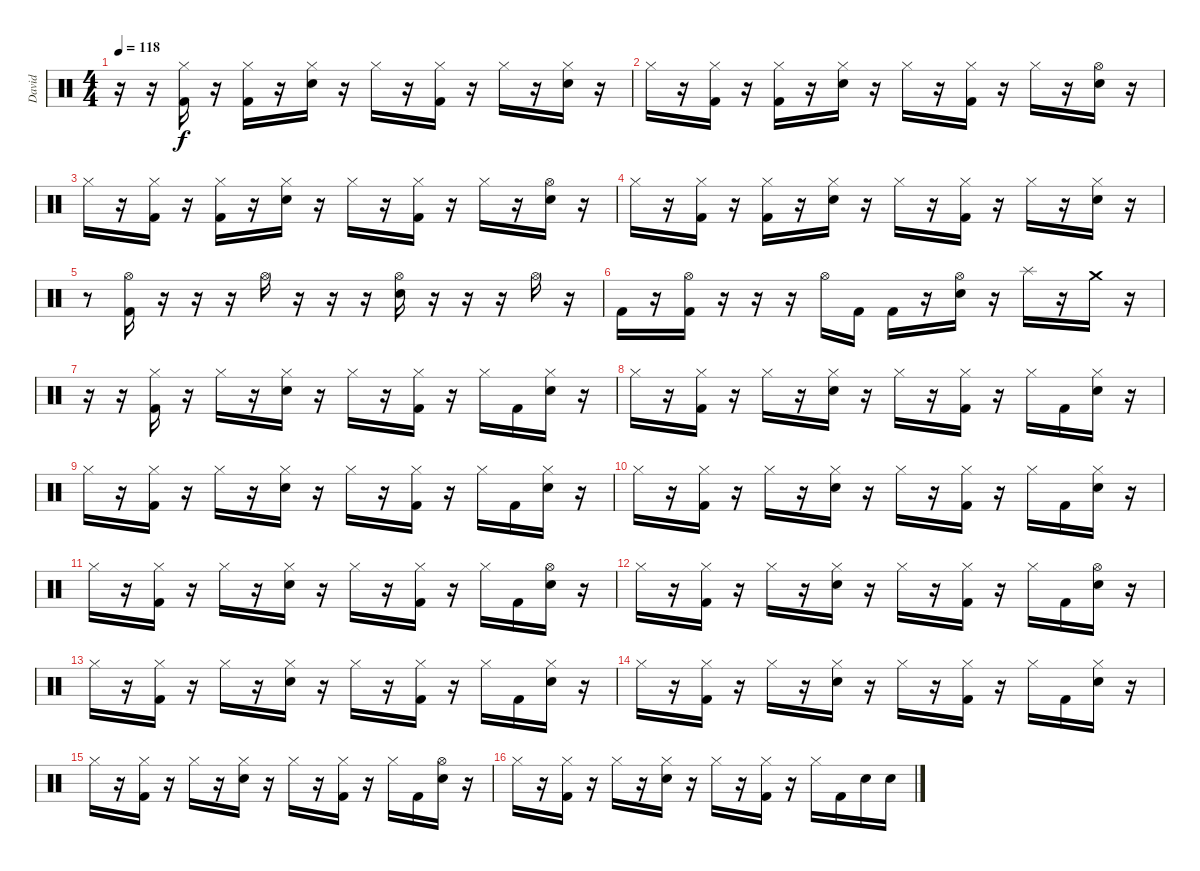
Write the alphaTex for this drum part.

\track ("David" "David") {instrument percussion}
\staff {score}
\articulation defaults
\ts (4 4)
\tempo 118
\clef neutral
\ks c
r.16{dy f} r.16 ("Hi-Hat (closed)" "Kick (hit) 2").16 r.16 ("Hi-Hat (closed)" "Kick (hit) 2").16 r.16 ("Hi-Hat (closed)" "Electric Snare (hit)").16 r.16 "Hi-Hat (closed)".16 r.16 ("Hi-Hat (closed)" "Kick (hit) 2").16 r.16 "Hi-Hat (closed)".16 r.16 ("Hi-Hat (closed)" "Electric Snare (hit)").16 r.16 |
"Hi-Hat (closed)".16 r.16 ("Hi-Hat (closed)" "Kick (hit) 2").16 r.16 ("Hi-Hat (closed)" "Kick (hit) 2").16 r.16 ("Hi-Hat (closed)" "Electric Snare (hit)").16 r.16 "Hi-Hat (closed)".16 r.16 ("Hi-Hat (closed)" "Kick (hit) 2").16 r.16 "Hi-Hat (closed)".16 r.16 ("Hi-Hat (open)" "Electric Snare (hit)").16 r.16 |
"Hi-Hat (closed)".16 r.16 ("Hi-Hat (closed)" "Kick (hit) 2").16 r.16 ("Hi-Hat (closed)" "Kick (hit) 2").16 r.16 ("Hi-Hat (closed)" "Electric Snare (hit)").16 r.16 "Hi-Hat (closed)".16 r.16 ("Hi-Hat (closed)" "Kick (hit) 2").16 r.16 "Hi-Hat (closed)".16 r.16 ("Hi-Hat (open)" "Electric Snare (hit)").16 r.16 |
"Hi-Hat (closed)".16 r.16 ("Hi-Hat (closed)" "Kick (hit) 2").16 r.16 ("Hi-Hat (closed)" "Kick (hit) 2").16 r.16 ("Hi-Hat (closed)" "Electric Snare (hit)").16 r.16 "Hi-Hat (closed)".16 r.16 ("Hi-Hat (closed)" "Kick (hit) 2").16 r.16 "Hi-Hat (closed)".16 r.16 ("Hi-Hat (closed)" "Electric Snare (hit)").16 r.16 |
r.8 ("Hi-Hat (open)" "Kick (hit) 2").16 r.16 r.16 r.16 "Hi-Hat (open)".16 r.16 r.16 r.16 ("Hi-Hat (open)" "Electric Snare (hit)").16 r.16 r.16 r.16 "Hi-Hat (open)".16 r.16 |
"Kick (hit) 2".16 r.16 ("Hi-Hat (open)" "Kick (hit) 2").16 r.16 r.16 r.16 "Hi-Hat (open)".16 "Kick (hit) 2".16 "Kick (hit) 2".16 r.16 ("Hi-Hat (open)" "Electric Snare (hit)").16 r.16 "Splash (hit)".16 r.16 "Crash medium (hit)".16 r.16 |
r.16 r.16 ("Hi-Hat (closed)" "Kick (hit) 2").16 r.16 "Hi-Hat (closed)".16 r.16 ("Hi-Hat (closed)" "Electric Snare (hit)").16 r.16 "Hi-Hat (closed)".16 r.16 ("Hi-Hat (closed)" "Kick (hit) 2").16 r.16 "Hi-Hat (closed)".16 "Kick (hit) 2".16 ("Hi-Hat (closed)" "Electric Snare (hit)").16 r.16 |
"Hi-Hat (closed)".16 r.16 ("Hi-Hat (closed)" "Kick (hit) 2").16 r.16 "Hi-Hat (closed)".16 r.16 ("Hi-Hat (closed)" "Electric Snare (hit)").16 r.16 "Hi-Hat (closed)".16 r.16 ("Hi-Hat (closed)" "Kick (hit) 2").16 r.16 "Hi-Hat (closed)".16 "Kick (hit) 2".16 ("Hi-Hat (closed)" "Electric Snare (hit)").16 r.16 |
"Hi-Hat (closed)".16 r.16 ("Hi-Hat (closed)" "Kick (hit) 2").16 r.16 "Hi-Hat (closed)".16 r.16 ("Hi-Hat (closed)" "Electric Snare (hit)").16 r.16 "Hi-Hat (closed)".16 r.16 ("Hi-Hat (closed)" "Kick (hit) 2").16 r.16 "Hi-Hat (closed)".16 "Kick (hit) 2".16 ("Hi-Hat (closed)" "Electric Snare (hit)").16 r.16 |
"Hi-Hat (closed)".16 r.16 ("Hi-Hat (closed)" "Kick (hit) 2").16 r.16 "Hi-Hat (closed)".16 r.16 ("Hi-Hat (closed)" "Electric Snare (hit)").16 r.16 "Hi-Hat (closed)".16 r.16 ("Hi-Hat (closed)" "Kick (hit) 2").16 r.16 "Hi-Hat (closed)".16 "Kick (hit) 2".16 ("Hi-Hat (closed)" "Electric Snare (hit)").16 r.16 |
"Hi-Hat (closed)".16 r.16 ("Hi-Hat (closed)" "Kick (hit) 2").16 r.16 "Hi-Hat (closed)".16 r.16 ("Hi-Hat (closed)" "Electric Snare (hit)").16 r.16 "Hi-Hat (closed)".16 r.16 ("Hi-Hat (closed)" "Kick (hit) 2").16 r.16 "Hi-Hat (closed)".16 "Kick (hit) 2".16 ("Hi-Hat (open)" "Electric Snare (hit)").16 r.16 |
"Hi-Hat (closed)".16 r.16 ("Hi-Hat (closed)" "Kick (hit) 2").16 r.16 "Hi-Hat (closed)".16 r.16 ("Hi-Hat (closed)" "Electric Snare (hit)").16 r.16 "Hi-Hat (closed)".16 r.16 ("Hi-Hat (closed)" "Kick (hit) 2").16 r.16 "Hi-Hat (closed)".16 "Kick (hit) 2".16 ("Hi-Hat (open)" "Electric Snare (hit)").16 r.16 |
"Hi-Hat (closed)".16 r.16 ("Hi-Hat (closed)" "Kick (hit) 2").16 r.16 "Hi-Hat (closed)".16 r.16 ("Hi-Hat (closed)" "Electric Snare (hit)").16 r.16 "Hi-Hat (closed)".16 r.16 ("Hi-Hat (closed)" "Kick (hit) 2").16 r.16 "Hi-Hat (closed)".16 "Kick (hit) 2".16 ("Hi-Hat (closed)" "Electric Snare (hit)").16 r.16 |
"Hi-Hat (closed)".16 r.16 ("Hi-Hat (closed)" "Kick (hit) 2").16 r.16 "Hi-Hat (closed)".16 r.16 ("Hi-Hat (closed)" "Electric Snare (hit)").16 r.16 "Hi-Hat (closed)".16 r.16 ("Hi-Hat (closed)" "Kick (hit) 2").16 r.16 "Hi-Hat (closed)".16 "Kick (hit) 2".16 ("Hi-Hat (closed)" "Electric Snare (hit)").16 r.16 |
"Hi-Hat (closed)".16 r.16 ("Hi-Hat (closed)" "Kick (hit) 2").16 r.16 "Hi-Hat (closed)".16 r.16 ("Hi-Hat (closed)" "Electric Snare (hit)").16 r.16 "Hi-Hat (closed)".16 r.16 ("Hi-Hat (closed)" "Kick (hit) 2").16 r.16 "Hi-Hat (closed)".16 "Kick (hit) 2".16 ("Hi-Hat (open)" "Electric Snare (hit)").16 r.16 |
"Hi-Hat (closed)".16 r.16 ("Hi-Hat (closed)" "Kick (hit) 2").16 r.16 "Hi-Hat (closed)".16 r.16 ("Hi-Hat (closed)" "Electric Snare (hit)").16 r.16 "Hi-Hat (closed)".16 r.16 ("Hi-Hat (closed)" "Kick (hit) 2").16 r.16 "Hi-Hat (closed)".16 "Kick (hit) 2".16 "Electric Snare (hit)".16 "Electric Snare (hit)".16
